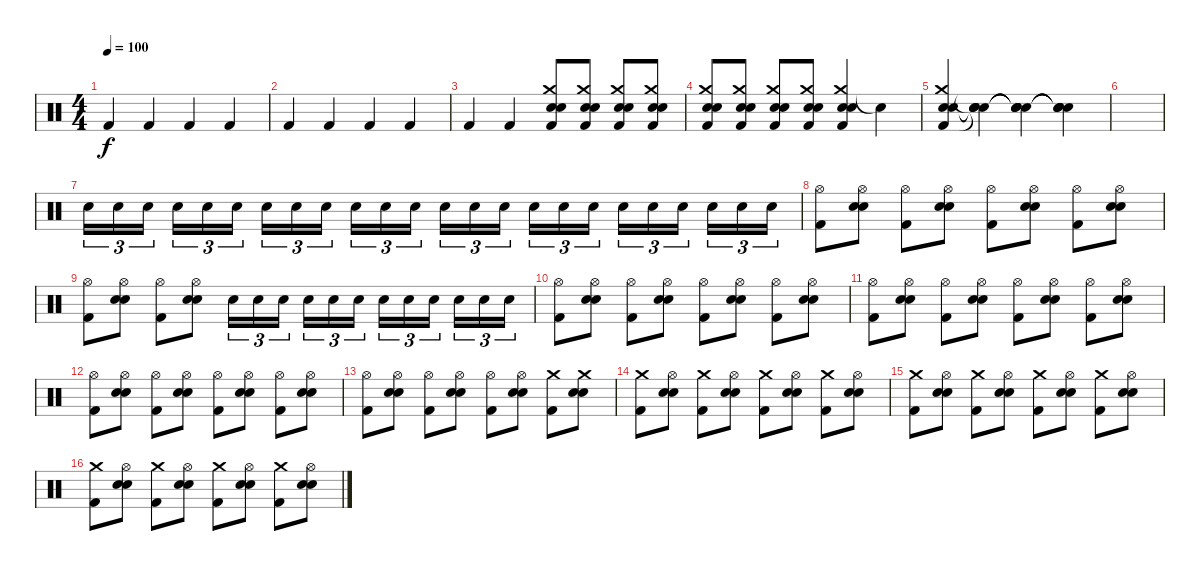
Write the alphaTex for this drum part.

\track "" {instrument percussion}
\staff {score}
\articulation defaults
\ts (4 4)
\tempo 100
\clef neutral
\ks c "Kick (hit) 2".4{dy f} "Kick (hit) 2".4 "Kick (hit) 2".4 "Kick (hit) 2".4
|
"Kick (hit) 2".4 "Kick (hit) 2".4 "Kick (hit) 2".4 "Kick (hit) 2".4 |
"Kick (hit) 2".4 "Kick (hit) 2".4 ("Crash medium (hit)" "Snare (hit) 2" "Electric Snare (hit)" "Kick (hit) 2").8 ("Crash medium (hit)" "Snare (hit) 2" "Electric Snare (hit)" "Kick (hit) 2").8 ("Crash medium (hit)" "Snare (hit) 2" "Electric Snare (hit)" "Kick (hit) 2").8 ("Crash medium (hit)" "Snare (hit) 2" "Electric Snare (hit)" "Kick (hit) 2").8 |
("Crash medium (hit)" "Snare (hit) 2" "Electric Snare (hit)" "Kick (hit) 2").8 ("Crash medium (hit)" "Snare (hit) 2" "Electric Snare (hit)" "Kick (hit) 2").8 ("Crash medium (hit)" "Snare (hit) 2" "Electric Snare (hit)" "Kick (hit) 2").8 ("Crash medium (hit)" "Snare (hit) 2" "Electric Snare (hit)" "Kick (hit) 2").8 ("Crash medium (hit)" "Snare (hit) 2" "Electric Snare (hit)" "Kick (hit) 2").4 "Snare (hit)"{t}.4 |
("Crash medium (hit)" "Snare (hit) 2" "Electric Snare (hit)" "Kick (hit) 2").4 ("Snare (hit)"{t} "Snare (hit)"{t} "Snare (hit)"{t} "Snare (hit)"{t}).4 ("Snare (hit)"{t} "Snare (hit)"{t} "Snare (hit)"{t} "Snare (hit)"{t}).4 ("Snare (hit)"{t} "Snare (hit)"{t} "Snare (hit)"{t} "Snare (hit)"{t}).4 |
|
"Electric Snare (hit)".16{tu (3 2)} "Electric Snare (hit)".16{tu (3 2)} "Electric Snare (hit)".16{tu (3 2)} "Electric Snare (hit)".16{tu (3 2)} "Electric Snare (hit)".16{tu (3 2)} "Electric Snare (hit)".16{tu (3 2)} "Electric Snare (hit)".16{tu (3 2)} "Electric Snare (hit)".16{tu (3 2)} "Electric Snare (hit)".16{tu (3 2)} "Electric Snare (hit)".16{tu (3 2)} "Electric Snare (hit)".16{tu (3 2)} "Electric Snare (hit)".16{tu (3 2)} "Electric Snare (hit)".16{tu (3 2)} "Electric Snare (hit)".16{tu (3 2)} "Electric Snare (hit)".16{tu (3 2)} "Electric Snare (hit)".16{tu (3 2)} "Electric Snare (hit)".16{tu (3 2)} "Electric Snare (hit)".16{tu (3 2)} "Electric Snare (hit)".16{tu (3 2)} "Electric Snare (hit)".16{tu (3 2)} "Electric Snare (hit)".16{tu (3 2)} "Electric Snare (hit)".16{tu (3 2)} "Electric Snare (hit)".16{tu (3 2)} "Electric Snare (hit)".16{tu (3 2)} |
("Hi-Hat (open)" "Kick (hit) 2").8 ("Hi-Hat (open)" "Snare (hit) 2" "Electric Snare (hit)").8 ("Hi-Hat (open)" "Kick (hit) 2").8 ("Hi-Hat (open)" "Snare (hit) 2" "Electric Snare (hit)").8 ("Hi-Hat (open)" "Kick (hit) 2").8 ("Hi-Hat (open)" "Snare (hit) 2" "Electric Snare (hit)").8 ("Hi-Hat (open)" "Kick (hit) 2").8 ("Hi-Hat (open)" "Snare (hit) 2" "Electric Snare (hit)").8 |
("Hi-Hat (open)" "Kick (hit) 2").8 ("Hi-Hat (open)" "Snare (hit) 2" "Electric Snare (hit)").8 ("Hi-Hat (open)" "Kick (hit) 2").8 ("Hi-Hat (open)" "Snare (hit) 2" "Electric Snare (hit)").8 "Electric Snare (hit)".16{tu (3 2)} "Electric Snare (hit)".16{tu (3 2)} "Electric Snare (hit)".16{tu (3 2)} "Electric Snare (hit)".16{tu (3 2)} "Electric Snare (hit)".16{tu (3 2)} "Electric Snare (hit)".16{tu (3 2)} "Electric Snare (hit)".16{tu (3 2)} "Electric Snare (hit)".16{tu (3 2)} "Electric Snare (hit)".16{tu (3 2)} "Electric Snare (hit)".16{tu (3 2)} "Electric Snare (hit)".16{tu (3 2)} "Electric Snare (hit)".16{tu (3 2)} |
("Hi-Hat (open)" "Kick (hit) 2").8 ("Hi-Hat (open)" "Snare (hit) 2" "Electric Snare (hit)").8 ("Hi-Hat (open)" "Kick (hit) 2").8 ("Hi-Hat (open)" "Snare (hit) 2" "Electric Snare (hit)").8 ("Hi-Hat (open)" "Kick (hit) 2").8 ("Hi-Hat (open)" "Snare (hit) 2" "Electric Snare (hit)").8 ("Hi-Hat (open)" "Kick (hit) 2").8 ("Hi-Hat (open)" "Snare (hit) 2" "Electric Snare (hit)").8 |
("Hi-Hat (open)" "Kick (hit) 2").8 ("Hi-Hat (open)" "Snare (hit) 2" "Electric Snare (hit)").8 ("Hi-Hat (open)" "Kick (hit) 2").8 ("Hi-Hat (open)" "Snare (hit) 2" "Electric Snare (hit)").8 ("Hi-Hat (open)" "Kick (hit) 2").8 ("Hi-Hat (open)" "Snare (hit) 2" "Electric Snare (hit)").8 ("Hi-Hat (open)" "Kick (hit) 2").8 ("Hi-Hat (open)" "Snare (hit) 2" "Electric Snare (hit)").8 |
("Hi-Hat (open)" "Kick (hit) 2").8 ("Hi-Hat (open)" "Snare (hit) 2" "Electric Snare (hit)").8 ("Hi-Hat (open)" "Kick (hit) 2").8 ("Hi-Hat (open)" "Snare (hit) 2" "Electric Snare (hit)").8 ("Hi-Hat (open)" "Kick (hit) 2").8 ("Hi-Hat (open)" "Snare (hit) 2" "Electric Snare (hit)").8 ("Hi-Hat (open)" "Kick (hit) 2").8 ("Hi-Hat (open)" "Snare (hit) 2" "Electric Snare (hit)").8 |
("Hi-Hat (open)" "Kick (hit) 2").8 ("Hi-Hat (open)" "Snare (hit) 2" "Electric Snare (hit)").8 ("Hi-Hat (open)" "Kick (hit) 2").8 ("Hi-Hat (open)" "Snare (hit) 2" "Electric Snare (hit)").8 ("Hi-Hat (open)" "Kick (hit) 2").8 ("Hi-Hat (open)" "Snare (hit) 2" "Electric Snare (hit)").8 ("Crash medium (hit)" "Kick (hit) 2").8 ("Crash medium (hit)" "Snare (hit) 2" "Electric Snare (hit)").8 |
("Crash medium (hit)" "Kick (hit) 2").8 ("Hi-Hat (open)" "Snare (hit) 2" "Electric Snare (hit)").8 ("Crash medium (hit)" "Kick (hit) 2").8 ("Hi-Hat (open)" "Snare (hit) 2" "Electric Snare (hit)").8 ("Crash medium (hit)" "Kick (hit) 2").8 ("Hi-Hat (open)" "Snare (hit) 2" "Electric Snare (hit)").8 ("Crash medium (hit)" "Kick (hit) 2").8 ("Hi-Hat (open)" "Snare (hit) 2" "Electric Snare (hit)").8 |
("Crash medium (hit)" "Kick (hit) 2").8 ("Hi-Hat (open)" "Snare (hit) 2" "Electric Snare (hit)").8 ("Crash medium (hit)" "Kick (hit) 2").8 ("Hi-Hat (open)" "Snare (hit) 2" "Electric Snare (hit)").8 ("Crash medium (hit)" "Kick (hit) 2").8 ("Hi-Hat (open)" "Snare (hit) 2" "Electric Snare (hit)").8 ("Crash medium (hit)" "Kick (hit) 2").8 ("Hi-Hat (open)" "Snare (hit) 2" "Electric Snare (hit)").8 |
("Crash medium (hit)" "Kick (hit) 2").8 ("Hi-Hat (open)" "Snare (hit) 2" "Electric Snare (hit)").8 ("Crash medium (hit)" "Kick (hit) 2").8 ("Hi-Hat (open)" "Snare (hit) 2" "Electric Snare (hit)").8 ("Crash medium (hit)" "Kick (hit) 2").8 ("Hi-Hat (open)" "Snare (hit) 2" "Electric Snare (hit)").8 ("Crash medium (hit)" "Kick (hit) 2").8 ("Hi-Hat (open)" "Snare (hit) 2" "Electric Snare (hit)").8
